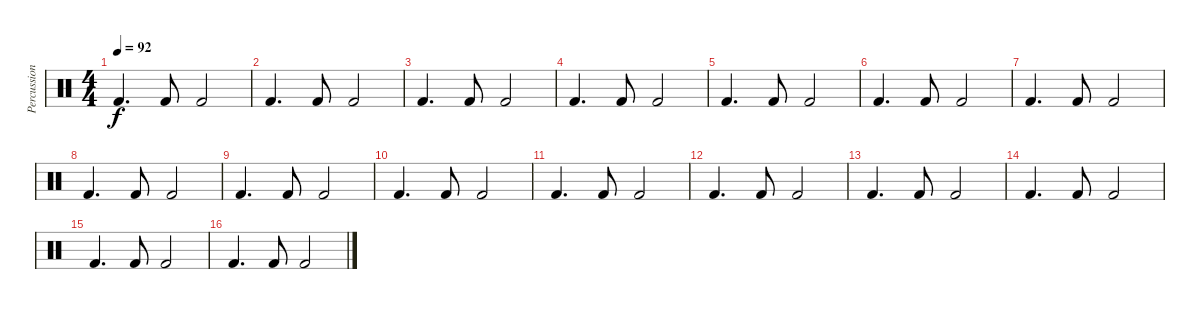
\track ("Percussion" "Percussion") {instrument percussion}
\staff {score}
\articulation defaults
\ts (4 4)
\tempo 92
\clef neutral
\ks c "Kick (hit) 2".4{d dy f volume 5} "Kick (hit) 2".8 "Kick (hit) 2".2
|
"Kick (hit) 2".4{d} "Kick (hit) 2".8 "Kick (hit) 2".2 |
"Kick (hit) 2".4{d} "Kick (hit) 2".8 "Kick (hit) 2".2 |
"Kick (hit) 2".4{d} "Kick (hit) 2".8 "Kick (hit) 2".2 |
"Kick (hit) 2".4{d volume 3} "Kick (hit) 2".8 "Kick (hit) 2".2 |
"Kick (hit) 2".4{d} "Kick (hit) 2".8 "Kick (hit) 2".2 |
"Kick (hit) 2".4{d} "Kick (hit) 2".8 "Kick (hit) 2".2 |
"Kick (hit) 2".4{d} "Kick (hit) 2".8 "Kick (hit) 2".2 |
"Kick (hit) 2".4{d volume 1} "Kick (hit) 2".8 "Kick (hit) 2".2 |
"Kick (hit) 2".4{d} "Kick (hit) 2".8 "Kick (hit) 2".2 |
"Kick (hit) 2".4{d} "Kick (hit) 2".8 "Kick (hit) 2".2 |
"Kick (hit) 2".4{d} "Kick (hit) 2".8 "Kick (hit) 2".2 |
"Kick (hit) 2".4{d} "Kick (hit) 2".8 "Kick (hit) 2".2 |
"Kick (hit) 2".4{d} "Kick (hit) 2".8 "Kick (hit) 2".2 |
"Kick (hit) 2".4{d} "Kick (hit) 2".8 "Kick (hit) 2".2 |
"Kick (hit) 2".4{d} "Kick (hit) 2".8 "Kick (hit) 2".2
